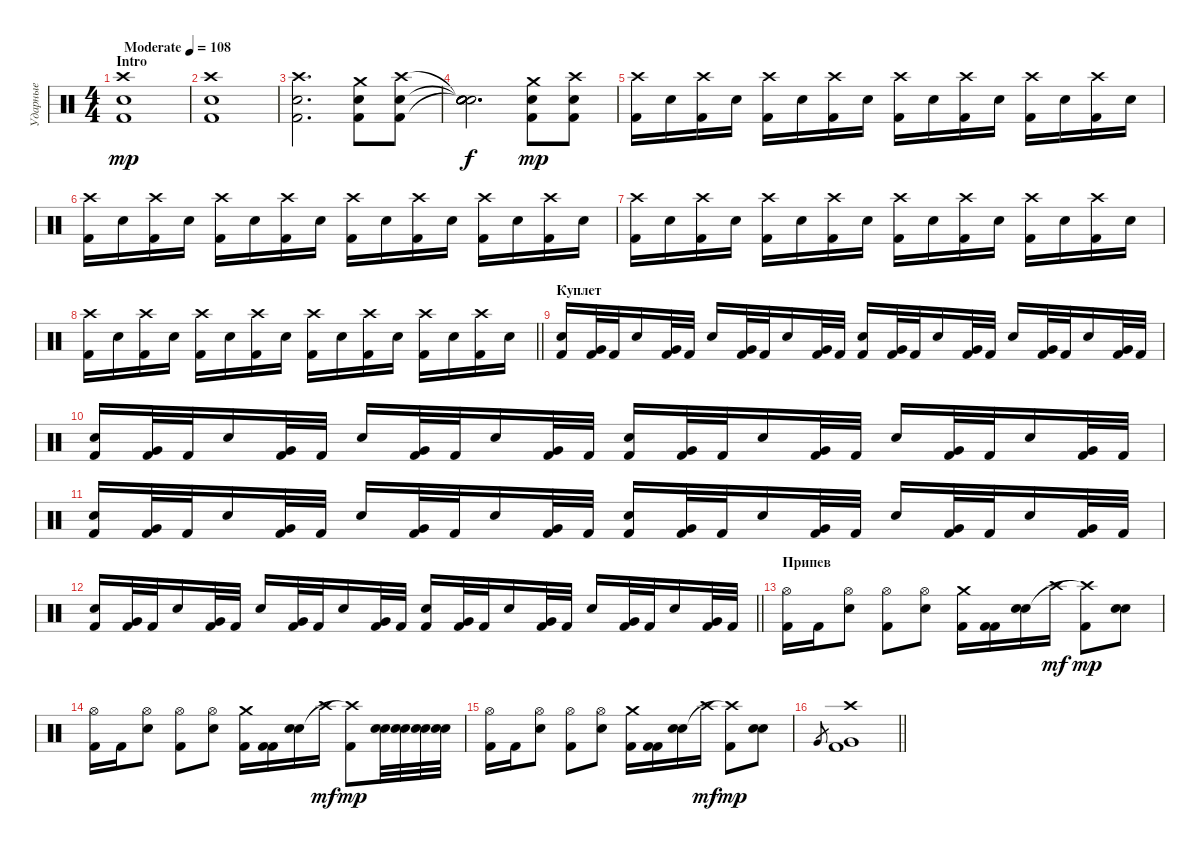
\track ("Ударные" "Ударные") {instrument percussion}
\staff {score}
\articulation defaults
\ts (4 4)
\section ("" "Intro")
\tempo (108 "Moderate")
\clef neutral
\ks c
("Crash high (hit)" "Kick (hit) 2" "Snare (hit) 2").1{dy mp} |
("Crash high (hit)" "Kick (hit) 2" "Snare (hit) 2").1 |
("Crash high (hit)" "Kick (hit) 2" "Snare (hit) 2").2{d} ("Crash medium (hit)" "Kick (hit) 2" "Snare (hit) 2").8 ("Crash high (hit)" "Kick (hit) 2" "Snare (hit) 2").8 |
("Snare (hit)"{t} "Snare (hit)"{t} "Snare (hit)"{t} "Snare (hit)" "Snare (hit)" "Snare (hit)").2{d dy f} ("Crash medium (hit)" "Kick (hit) 2" "Snare (hit) 2").8{dy mp} ("Crash high (hit)" "Kick (hit) 2" "Snare (hit) 2").8 |
("Kick (hit) 2" "Crash high (hit)").16 "Snare (hit) 2".16 ("Kick (hit) 2" "Crash high (hit)").16 "Snare (hit) 2".16 ("Kick (hit) 2" "Crash high (hit)").16 "Snare (hit) 2".16 ("Kick (hit) 2" "Crash high (hit)").16 "Snare (hit) 2".16 ("Kick (hit) 2" "Crash high (hit)").16 "Snare (hit) 2".16 ("Kick (hit) 2" "Crash high (hit)").16 "Snare (hit) 2".16 ("Kick (hit) 2" "Crash high (hit)").16 "Snare (hit) 2".16 ("Kick (hit) 2" "Crash high (hit)").16 "Snare (hit) 2".16 |
("Kick (hit) 2" "Crash high (hit)").16 "Snare (hit) 2".16 ("Kick (hit) 2" "Crash high (hit)").16 "Snare (hit) 2".16 ("Kick (hit) 2" "Crash high (hit)").16 "Snare (hit) 2".16 ("Kick (hit) 2" "Crash high (hit)").16 "Snare (hit) 2".16 ("Kick (hit) 2" "Crash high (hit)").16 "Snare (hit) 2".16 ("Kick (hit) 2" "Crash high (hit)").16 "Snare (hit) 2".16 ("Kick (hit) 2" "Crash high (hit)").16 "Snare (hit) 2".16 ("Kick (hit) 2" "Crash high (hit)").16 "Snare (hit) 2".16 |
("Kick (hit) 2" "Crash high (hit)").16 "Snare (hit) 2".16 ("Kick (hit) 2" "Crash high (hit)").16 "Snare (hit) 2".16 ("Kick (hit) 2" "Crash high (hit)").16 "Snare (hit) 2".16 ("Kick (hit) 2" "Crash high (hit)").16 "Snare (hit) 2".16 ("Kick (hit) 2" "Crash high (hit)").16 "Snare (hit) 2".16 ("Kick (hit) 2" "Crash high (hit)").16 "Snare (hit) 2".16 ("Kick (hit) 2" "Crash high (hit)").16 "Snare (hit) 2".16 ("Kick (hit) 2" "Crash high (hit)").16 "Snare (hit) 2".16 |
\barLineRight lightlight
("Kick (hit) 2" "Crash high (hit)").16 "Snare (hit) 2".16 ("Kick (hit) 2" "Crash high (hit)").16 "Snare (hit) 2".16 ("Kick (hit) 2" "Crash high (hit)").16 "Snare (hit) 2".16 ("Kick (hit) 2" "Crash high (hit)").16 "Snare (hit) 2".16 ("Kick (hit) 2" "Crash high (hit)").16 "Snare (hit) 2".16 ("Kick (hit) 2" "Crash high (hit)").16 "Snare (hit) 2".16 ("Kick (hit) 2" "Crash high (hit)").16 "Snare (hit) 2".16 ("Kick (hit) 2" "Crash high (hit)").16 "Snare (hit) 2".16 |
\section ("" "Куплет")
("Kick (hit) 2" "Snare (hit) 2").16 ("Kick (hit) 2" "Very Low Tom (hit)").32 "Kick (hit) 2".32 "Snare (hit) 2".16 ("Kick (hit) 2" "Very Low Tom (hit)").32 "Kick (hit) 2".32 "Snare (hit) 2".16 ("Kick (hit) 2" "Very Low Tom (hit)").32 "Kick (hit) 2".32 "Snare (hit) 2".16 ("Kick (hit) 2" "Very Low Tom (hit)").32 "Kick (hit) 2".32 ("Kick (hit) 2" "Snare (hit) 2").16 ("Kick (hit) 2" "Very Low Tom (hit)").32 "Kick (hit) 2".32 "Snare (hit) 2".16 ("Kick (hit) 2" "Very Low Tom (hit)").32 "Kick (hit) 2".32 "Snare (hit) 2".16 ("Kick (hit) 2" "Very Low Tom (hit)").32 "Kick (hit) 2".32 "Snare (hit) 2".16 ("Kick (hit) 2" "Very Low Tom (hit)").32 "Kick (hit) 2".32 |
("Kick (hit) 2" "Snare (hit) 2").16 ("Kick (hit) 2" "Very Low Tom (hit)").32 "Kick (hit) 2".32 "Snare (hit) 2".16 ("Kick (hit) 2" "Very Low Tom (hit)").32 "Kick (hit) 2".32 "Snare (hit) 2".16 ("Kick (hit) 2" "Very Low Tom (hit)").32 "Kick (hit) 2".32 "Snare (hit) 2".16 ("Kick (hit) 2" "Very Low Tom (hit)").32 "Kick (hit) 2".32 ("Kick (hit) 2" "Snare (hit) 2").16 ("Kick (hit) 2" "Very Low Tom (hit)").32 "Kick (hit) 2".32 "Snare (hit) 2".16 ("Kick (hit) 2" "Very Low Tom (hit)").32 "Kick (hit) 2".32 "Snare (hit) 2".16 ("Kick (hit) 2" "Very Low Tom (hit)").32 "Kick (hit) 2".32 "Snare (hit) 2".16 ("Kick (hit) 2" "Very Low Tom (hit)").32 "Kick (hit) 2".32 |
("Kick (hit) 2" "Snare (hit) 2").16 ("Kick (hit) 2" "Very Low Tom (hit)").32 "Kick (hit) 2".32 "Snare (hit) 2".16 ("Kick (hit) 2" "Very Low Tom (hit)").32 "Kick (hit) 2".32 "Snare (hit) 2".16 ("Kick (hit) 2" "Very Low Tom (hit)").32 "Kick (hit) 2".32 "Snare (hit) 2".16 ("Kick (hit) 2" "Very Low Tom (hit)").32 "Kick (hit) 2".32 ("Kick (hit) 2" "Snare (hit) 2").16 ("Kick (hit) 2" "Very Low Tom (hit)").32 "Kick (hit) 2".32 "Snare (hit) 2".16 ("Kick (hit) 2" "Very Low Tom (hit)").32 "Kick (hit) 2".32 "Snare (hit) 2".16 ("Kick (hit) 2" "Very Low Tom (hit)").32 "Kick (hit) 2".32 "Snare (hit) 2".16 ("Kick (hit) 2" "Very Low Tom (hit)").32 "Kick (hit) 2".32 |
\barLineRight lightlight
("Kick (hit) 2" "Snare (hit) 2").16 ("Kick (hit) 2" "Very Low Tom (hit)").32 "Kick (hit) 2".32 "Snare (hit) 2".16 ("Kick (hit) 2" "Very Low Tom (hit)").32 "Kick (hit) 2".32 "Snare (hit) 2".16 ("Kick (hit) 2" "Very Low Tom (hit)").32 "Kick (hit) 2".32 "Snare (hit) 2".16 ("Kick (hit) 2" "Very Low Tom (hit)").32 "Kick (hit) 2".32 ("Kick (hit) 2" "Snare (hit) 2").16 ("Kick (hit) 2" "Very Low Tom (hit)").32 "Kick (hit) 2".32 "Snare (hit) 2".16 ("Kick (hit) 2" "Very Low Tom (hit)").32 "Kick (hit) 2".32 "Snare (hit) 2".16 ("Kick (hit) 2" "Very Low Tom (hit)").32 "Kick (hit) 2".32 "Snare (hit) 2".16 ("Kick (hit) 2" "Very Low Tom (hit)").32 "Kick (hit) 2".32 |
\section ("" "Припев")
("Kick (hit) 2" "Hi-Hat (open)").16 "Kick (hit) 2".16 ("Snare (hit) 2" "Hi-Hat (open)").8 ("Kick (hit) 2" "Hi-Hat (open)").8 ("Snare (hit) 2" "Hi-Hat (open)").8 ("Kick (hit) 2" "Crash medium (hit)").16 ("Kick (hit) 2" "Kick (hit) 2").16 ("Snare (hit) 2" "Snare (hit) 2").16 "Crash high (hit)".16{dy mf} ("Kick (hit) 2" "Crash high (hit)"{t}).8{dy mp} ("Snare (hit) 2" "Snare (hit) 2").8 |
("Kick (hit) 2" "Hi-Hat (open)").16 "Kick (hit) 2".16 ("Snare (hit) 2" "Hi-Hat (open)").8 ("Kick (hit) 2" "Hi-Hat (open)").8 ("Snare (hit) 2" "Hi-Hat (open)").8 ("Kick (hit) 2" "Crash medium (hit)").16 ("Kick (hit) 2" "Kick (hit) 2").16 ("Snare (hit) 2" "Snare (hit) 2").16 "Crash high (hit)".16{dy mf} ("Kick (hit) 2" "Crash high (hit)"{t}).8{dy mp} ("Snare (hit) 2" "Snare (hit) 2").32 ("Snare (hit) 2" "Snare (hit) 2").32 ("Snare (hit) 2" "Snare (hit) 2").32 ("Snare (hit) 2" "Snare (hit) 2").32 |
("Kick (hit) 2" "Hi-Hat (open)").16 "Kick (hit) 2".16 ("Snare (hit) 2" "Hi-Hat (open)").8 ("Kick (hit) 2" "Hi-Hat (open)").8 ("Snare (hit) 2" "Hi-Hat (open)").8 ("Kick (hit) 2" "Crash medium (hit)").16 ("Kick (hit) 2" "Kick (hit) 2").16 ("Snare (hit) 2" "Snare (hit) 2").16 "Crash high (hit)".16{dy mf} ("Kick (hit) 2" "Crash high (hit)"{t}).8{dy mp} ("Snare (hit) 2" "Snare (hit) 2").8 |
\barLineRight lightlight "Very Low Tom (hit)".8{gr}
("Kick (hit) 2" "Very Low Tom (hit)" "Crash high (hit)").1
